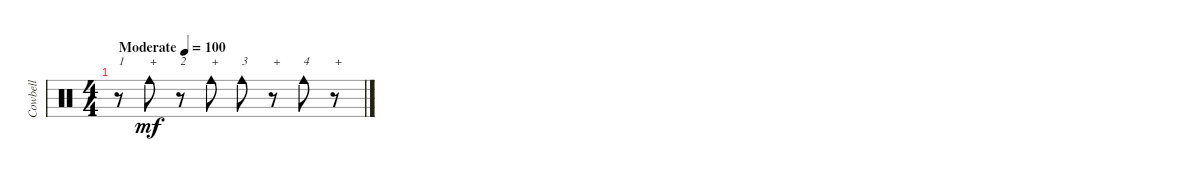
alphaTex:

\track ("Cowbell" "Cowbell") {instrument percussion}
\staff {score}
\articulation defaults
\ts (4 4)
\tempo (100 "Moderate")
\clef neutral
\ks c
r.8{txt "1" dy mf} "Cowbell medium (hit)".8{bu 120 txt "+"} r.8{txt "2"} "Cowbell medium (hit)".8{bu 120 txt "+"} "Cowbell medium (hit)".8{bd 120 txt "3"} r.8{txt "+"} "Cowbell medium (hit)".8{bd 120 txt "4"} r.8{txt "+"}
